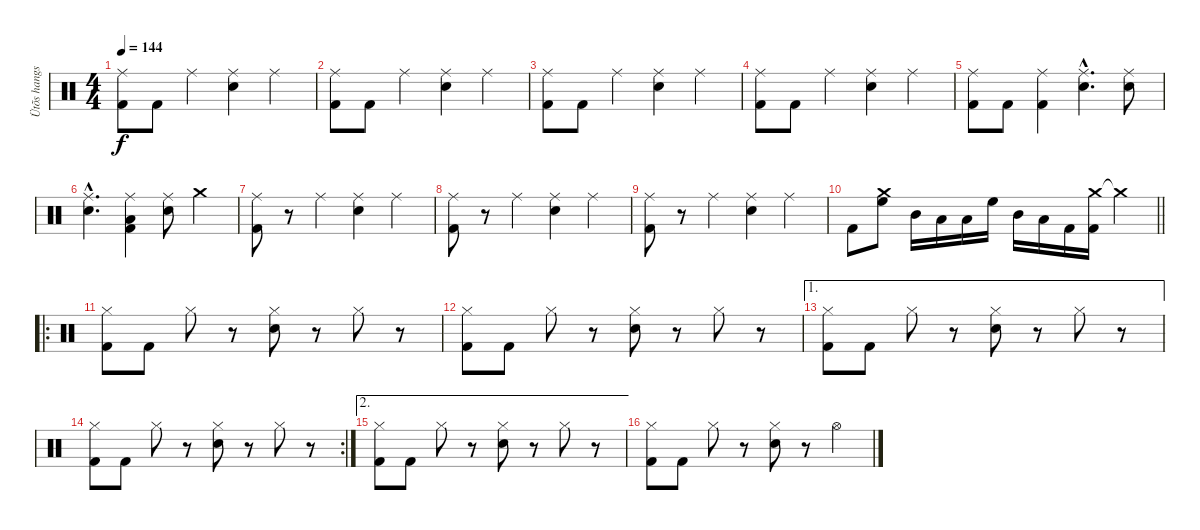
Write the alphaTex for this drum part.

\track ("Ütõs hangszer" "Ütõs hangs") {instrument percussion}
\staff {score}
\articulation defaults
\ts (4 4)
\tempo 144
\clef neutral
\ks c
("Ride (middle)" "Kick (hit) 2").8{dy f} "Kick (hit) 2".8 "Ride (middle)".4 ("Ride (middle)" "Snare (hit) 2").4 "Ride (middle)".4 |
("Ride (middle)" "Kick (hit) 2").8 "Kick (hit) 2".8 "Ride (middle)".4 ("Ride (middle)" "Snare (hit) 2").4 "Ride (middle)".4 |
("Ride (middle)" "Kick (hit) 2").8 "Kick (hit) 2".8 "Ride (middle)".4 ("Ride (middle)" "Snare (hit) 2").4 "Ride (middle)".4 |
("Ride (middle)" "Kick (hit) 2").8 "Kick (hit) 2".8 "Ride (middle)".4 ("Ride (middle)" "Snare (hit) 2").4 "Ride (middle)".4 |
("Ride (middle)" "Kick (hit) 2").8 "Kick (hit) 2".8 ("Ride (middle)" "Kick (hit) 2").4 ("Ride (middle)"{hac} "Snare (hit) 2"{hac}).4{d} ("Ride (middle)" "Snare (hit) 2").8 |
("Ride (middle)"{hac} "Snare (hit) 2"{hac}).4{d} ("Ride (middle)" "Low Floor Tom (hit)" "Kick (hit) 2").4 ("Ride (middle)" "Snare (hit) 2").8 "Crash medium (hit)".4 |
("Ride (middle)" "Kick (hit) 2").8 r.8 "Ride (middle)".4 ("Ride (middle)" "Snare (hit) 2").4 "Ride (middle)".4 |
("Ride (middle)" "Kick (hit) 2").8 r.8 "Ride (middle)".4 ("Ride (middle)" "Snare (hit) 2").4 "Ride (middle)".4 |
("Ride (middle)" "Kick (hit) 2").8 r.8 "Ride (middle)".4 ("Ride (middle)" "Snare (hit) 2").4 "Ride (middle)".4 |
\barLineRight lightlight "Kick (hit) 2".8
("Crash medium (hit)" "High Floor Tom (hit)").8 "Mid Tom (hit)".16 "Low Tom (hit)".16 "Low Floor Tom (hit)".16 "High Floor Tom (hit)".16 "Mid Tom (hit)".16 "Low Tom (hit)".16 "Kick (hit) 2".16 ("Crash medium (hit)" "Kick (hit) 2").16 "Crash medium (hit)"{t}.4 |
\ro
("Hi-Hat (closed)" "Kick (hit) 2").8 "Kick (hit) 2".8 "Hi-Hat (closed)".8 r.8 ("Hi-Hat (closed)" "Snare (hit) 2").8 r.8 "Hi-Hat (closed)".8 r.8 |
("Hi-Hat (closed)" "Kick (hit) 2").8 "Kick (hit) 2".8 "Hi-Hat (closed)".8 r.8 ("Hi-Hat (closed)" "Snare (hit) 2").8 r.8 "Hi-Hat (closed)".8 r.8 |
\ae 1
("Hi-Hat (closed)" "Kick (hit) 2").8 "Kick (hit) 2".8 "Hi-Hat (closed)".8 r.8 ("Hi-Hat (closed)" "Snare (hit) 2").8 r.8 "Hi-Hat (closed)".8 r.8 |
\rc 2
("Hi-Hat (closed)" "Kick (hit) 2").8 "Kick (hit) 2".8 "Hi-Hat (closed)".8 r.8 ("Hi-Hat (closed)" "Snare (hit) 2").8 r.8 "Hi-Hat (closed)".8 r.8 |
\ae 2
("Hi-Hat (closed)" "Kick (hit) 2").8 "Kick (hit) 2".8 "Hi-Hat (closed)".8 r.8 ("Hi-Hat (closed)" "Snare (hit) 2").8 r.8 "Hi-Hat (closed)".8 r.8 |
("Hi-Hat (closed)" "Kick (hit) 2").8 "Kick (hit) 2".8 "Hi-Hat (closed)".8 r.8 ("Hi-Hat (closed)" "Snare (hit) 2").8 r.8 "Hi-Hat (open)".4
